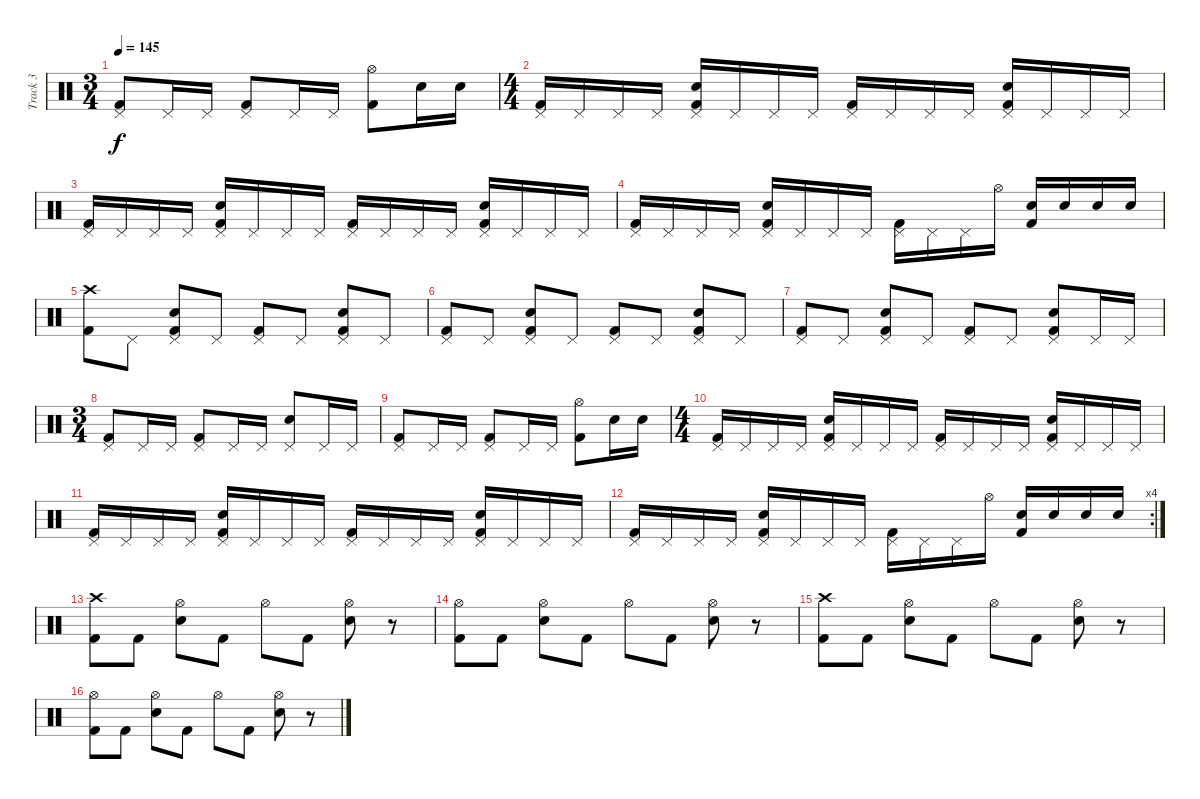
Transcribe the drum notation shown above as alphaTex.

\track ("Track 3" "Track 3") {instrument percussion}
\staff {score}
\articulation defaults
\ts (3 4)
\tempo 145
\clef neutral
\ks c
("Pedal Hi-Hat (hit)" "Kick (hit) 2").8{dy f} "Pedal Hi-Hat (hit)".16 "Pedal Hi-Hat (hit)".16 ("Pedal Hi-Hat (hit)" "Kick (hit) 2").8 "Pedal Hi-Hat (hit)".16 "Pedal Hi-Hat (hit)".16 ("Hi-Hat (open)" "Kick (hit) 2").8 "Electric Snare (hit)".16 "Electric Snare (hit)".16 |
\ts (4 4)
("Pedal Hi-Hat (hit)" "Kick (hit) 2").16 "Pedal Hi-Hat (hit)".16 "Pedal Hi-Hat (hit)".16 "Pedal Hi-Hat (hit)".16 ("Pedal Hi-Hat (hit)" "Kick (hit) 2" "Electric Snare (hit)").16 "Pedal Hi-Hat (hit)".16 "Pedal Hi-Hat (hit)".16 "Pedal Hi-Hat (hit)".16 ("Pedal Hi-Hat (hit)" "Kick (hit) 2").16 "Pedal Hi-Hat (hit)".16 "Pedal Hi-Hat (hit)".16 "Pedal Hi-Hat (hit)".16 ("Pedal Hi-Hat (hit)" "Kick (hit) 2" "Electric Snare (hit)").16 "Pedal Hi-Hat (hit)".16 "Pedal Hi-Hat (hit)".16 "Pedal Hi-Hat (hit)".16 |
("Pedal Hi-Hat (hit)" "Kick (hit) 2").16 "Pedal Hi-Hat (hit)".16 "Pedal Hi-Hat (hit)".16 "Pedal Hi-Hat (hit)".16 ("Pedal Hi-Hat (hit)" "Kick (hit) 2" "Electric Snare (hit)").16 "Pedal Hi-Hat (hit)".16 "Pedal Hi-Hat (hit)".16 "Pedal Hi-Hat (hit)".16 ("Pedal Hi-Hat (hit)" "Kick (hit) 2").16 "Pedal Hi-Hat (hit)".16 "Pedal Hi-Hat (hit)".16 "Pedal Hi-Hat (hit)".16 ("Pedal Hi-Hat (hit)" "Kick (hit) 2" "Electric Snare (hit)").16 "Pedal Hi-Hat (hit)".16 "Pedal Hi-Hat (hit)".16 "Pedal Hi-Hat (hit)".16 |
("Pedal Hi-Hat (hit)" "Kick (hit) 2").16 "Pedal Hi-Hat (hit)".16 "Pedal Hi-Hat (hit)".16 "Pedal Hi-Hat (hit)".16 ("Pedal Hi-Hat (hit)" "Kick (hit) 2" "Electric Snare (hit)").16 "Pedal Hi-Hat (hit)".16 "Pedal Hi-Hat (hit)".16 "Pedal Hi-Hat (hit)".16 ("Pedal Hi-Hat (hit)" "Kick (hit) 2").16 "Pedal Hi-Hat (hit)".16 "Pedal Hi-Hat (hit)".16 "Hi-Hat (open)".16 ("Kick (hit) 2" "Electric Snare (hit)").16 "Electric Snare (hit)".16 "Electric Snare (hit)".16 "Electric Snare (hit)".16 |
("Crash high (hit)" "Kick (hit) 2").8 "Pedal Hi-Hat (hit)".8 ("Pedal Hi-Hat (hit)" "Kick (hit) 2" "Electric Snare (hit)").8 "Pedal Hi-Hat (hit)".8 ("Pedal Hi-Hat (hit)" "Kick (hit) 2").8 "Pedal Hi-Hat (hit)".8 ("Pedal Hi-Hat (hit)" "Kick (hit) 2" "Electric Snare (hit)").8 "Pedal Hi-Hat (hit)".8 |
("Pedal Hi-Hat (hit)" "Kick (hit) 2").8 "Pedal Hi-Hat (hit)".8 ("Pedal Hi-Hat (hit)" "Kick (hit) 2" "Electric Snare (hit)").8 "Pedal Hi-Hat (hit)".8 ("Pedal Hi-Hat (hit)" "Kick (hit) 2").8 "Pedal Hi-Hat (hit)".8 ("Pedal Hi-Hat (hit)" "Kick (hit) 2" "Electric Snare (hit)").8 "Pedal Hi-Hat (hit)".8 |
("Pedal Hi-Hat (hit)" "Kick (hit) 2").8 "Pedal Hi-Hat (hit)".8 ("Pedal Hi-Hat (hit)" "Kick (hit) 2" "Electric Snare (hit)").8 "Pedal Hi-Hat (hit)".8 ("Pedal Hi-Hat (hit)" "Kick (hit) 2").8 "Pedal Hi-Hat (hit)".8 ("Pedal Hi-Hat (hit)" "Kick (hit) 2" "Electric Snare (hit)").8 "Pedal Hi-Hat (hit)".16 "Pedal Hi-Hat (hit)".16 |
\ts (3 4)
("Pedal Hi-Hat (hit)" "Kick (hit) 2").8 "Pedal Hi-Hat (hit)".16 "Pedal Hi-Hat (hit)".16 ("Pedal Hi-Hat (hit)" "Kick (hit) 2").8 "Pedal Hi-Hat (hit)".16 "Pedal Hi-Hat (hit)".16 ("Pedal Hi-Hat (hit)" "Electric Snare (hit)").8 "Pedal Hi-Hat (hit)".16 "Pedal Hi-Hat (hit)".16 |
("Pedal Hi-Hat (hit)" "Kick (hit) 2").8 "Pedal Hi-Hat (hit)".16 "Pedal Hi-Hat (hit)".16 ("Pedal Hi-Hat (hit)" "Kick (hit) 2").8 "Pedal Hi-Hat (hit)".16 "Pedal Hi-Hat (hit)".16 ("Hi-Hat (open)" "Kick (hit) 2").8 "Electric Snare (hit)".16 "Electric Snare (hit)".16 |
\ts (4 4)
("Pedal Hi-Hat (hit)" "Kick (hit) 2").16 "Pedal Hi-Hat (hit)".16 "Pedal Hi-Hat (hit)".16 "Pedal Hi-Hat (hit)".16 ("Pedal Hi-Hat (hit)" "Kick (hit) 2" "Electric Snare (hit)").16 "Pedal Hi-Hat (hit)".16 "Pedal Hi-Hat (hit)".16 "Pedal Hi-Hat (hit)".16 ("Pedal Hi-Hat (hit)" "Kick (hit) 2").16 "Pedal Hi-Hat (hit)".16 "Pedal Hi-Hat (hit)".16 "Pedal Hi-Hat (hit)".16 ("Pedal Hi-Hat (hit)" "Kick (hit) 2" "Electric Snare (hit)").16 "Pedal Hi-Hat (hit)".16 "Pedal Hi-Hat (hit)".16 "Pedal Hi-Hat (hit)".16 |
("Pedal Hi-Hat (hit)" "Kick (hit) 2").16 "Pedal Hi-Hat (hit)".16 "Pedal Hi-Hat (hit)".16 "Pedal Hi-Hat (hit)".16 ("Pedal Hi-Hat (hit)" "Kick (hit) 2" "Electric Snare (hit)").16 "Pedal Hi-Hat (hit)".16 "Pedal Hi-Hat (hit)".16 "Pedal Hi-Hat (hit)".16 ("Pedal Hi-Hat (hit)" "Kick (hit) 2").16 "Pedal Hi-Hat (hit)".16 "Pedal Hi-Hat (hit)".16 "Pedal Hi-Hat (hit)".16 ("Pedal Hi-Hat (hit)" "Kick (hit) 2" "Electric Snare (hit)").16 "Pedal Hi-Hat (hit)".16 "Pedal Hi-Hat (hit)".16 "Pedal Hi-Hat (hit)".16 |
\rc 4
("Pedal Hi-Hat (hit)" "Kick (hit) 2").16 "Pedal Hi-Hat (hit)".16 "Pedal Hi-Hat (hit)".16 "Pedal Hi-Hat (hit)".16 ("Pedal Hi-Hat (hit)" "Kick (hit) 2" "Electric Snare (hit)").16 "Pedal Hi-Hat (hit)".16 "Pedal Hi-Hat (hit)".16 "Pedal Hi-Hat (hit)".16 ("Pedal Hi-Hat (hit)" "Kick (hit) 2").16 "Pedal Hi-Hat (hit)".16 "Pedal Hi-Hat (hit)".16 "Hi-Hat (open)".16 ("Kick (hit) 2" "Electric Snare (hit)").16 "Electric Snare (hit)".16 "Electric Snare (hit)".16 "Electric Snare (hit)".16 |
("Crash high (hit)" "Kick (hit) 2").8 "Kick (hit) 2".8 ("Electric Snare (hit)" "Hi-Hat (open)").8 "Kick (hit) 2".8 "Hi-Hat (open)".8 "Kick (hit) 2".8 ("Hi-Hat (open)" "Electric Snare (hit)").8 r.8 |
("Hi-Hat (open)" "Kick (hit) 2").8 "Kick (hit) 2".8 ("Hi-Hat (open)" "Electric Snare (hit)").8 "Kick (hit) 2".8 "Hi-Hat (open)".8 "Kick (hit) 2".8 ("Hi-Hat (open)" "Electric Snare (hit)").8 r.8 |
("Crash high (hit)" "Kick (hit) 2").8 "Kick (hit) 2".8 ("Electric Snare (hit)" "Hi-Hat (open)").8 "Kick (hit) 2".8 "Hi-Hat (open)".8 "Kick (hit) 2".8 ("Hi-Hat (open)" "Electric Snare (hit)").8 r.8 |
("Hi-Hat (open)" "Kick (hit) 2").8 "Kick (hit) 2".8 ("Hi-Hat (open)" "Electric Snare (hit)").8 "Kick (hit) 2".8 "Hi-Hat (open)".8 "Kick (hit) 2".8 ("Hi-Hat (open)" "Electric Snare (hit)").8 r.8
